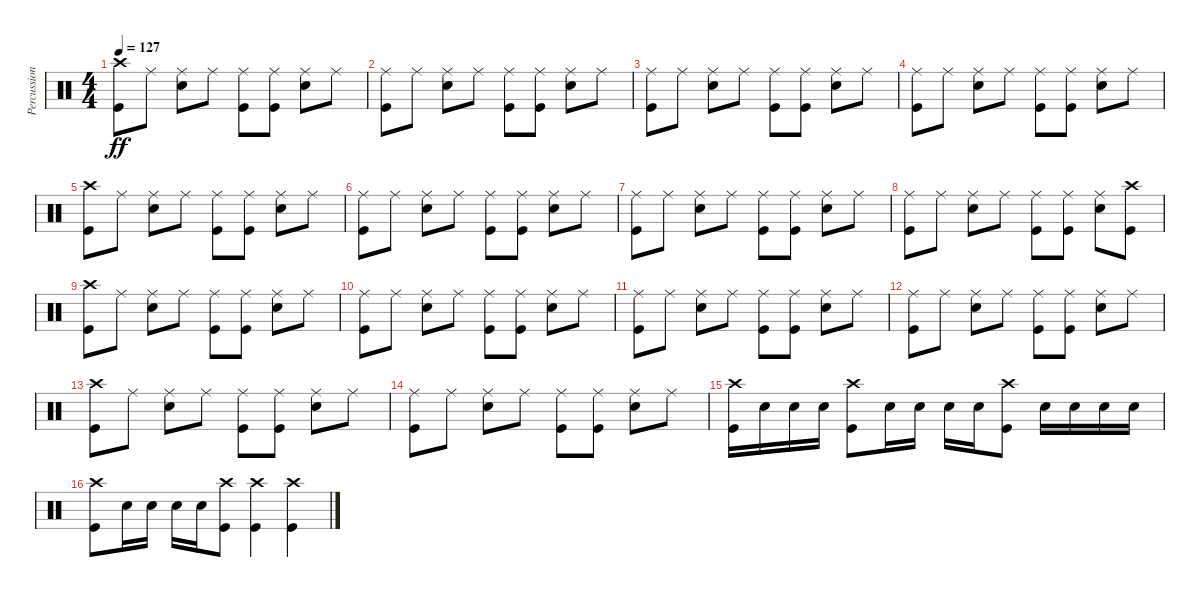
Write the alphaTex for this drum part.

\track ("Percussion" "Percussion") {instrument percussion}
\staff {score}
\articulation defaults
\ts (4 4)
\tempo 127
\clef neutral
\ks c
("Crash high (hit)" "Kick (hit)").8{dy ff} "Ride (middle)".8 ("Ride (middle)" "Snare (hit) 2").8 "Ride (middle)".8 ("Ride (middle)" "Kick (hit)").8 ("Ride (middle)" "Kick (hit)").8 ("Ride (middle)" "Snare (hit) 2").8 "Ride (middle)".8 |
("Ride (middle)" "Kick (hit)").8 "Ride (middle)".8 ("Ride (middle)" "Snare (hit) 2").8 "Ride (middle)".8 ("Ride (middle)" "Kick (hit)").8 ("Ride (middle)" "Kick (hit)").8 ("Ride (middle)" "Snare (hit) 2").8 "Ride (middle)".8 |
("Ride (middle)" "Kick (hit)").8 "Ride (middle)".8 ("Ride (middle)" "Snare (hit) 2").8 "Ride (middle)".8 ("Ride (middle)" "Kick (hit)").8 ("Ride (middle)" "Kick (hit)").8 ("Ride (middle)" "Snare (hit) 2").8 "Ride (middle)".8 |
("Ride (middle)" "Kick (hit)").8 "Ride (middle)".8 ("Ride (middle)" "Snare (hit) 2").8 "Ride (middle)".8 ("Ride (middle)" "Kick (hit)").8 ("Ride (middle)" "Kick (hit)").8 ("Ride (middle)" "Snare (hit) 2").8 "Ride (middle)".8 |
("Crash high (hit)" "Kick (hit)").8 "Ride (middle)".8 ("Ride (middle)" "Snare (hit) 2").8 "Ride (middle)".8 ("Ride (middle)" "Kick (hit)").8 ("Ride (middle)" "Kick (hit)").8 ("Ride (middle)" "Snare (hit) 2").8 "Ride (middle)".8 |
("Ride (middle)" "Kick (hit)").8 "Ride (middle)".8 ("Ride (middle)" "Snare (hit) 2").8 "Ride (middle)".8 ("Ride (middle)" "Kick (hit)").8 ("Ride (middle)" "Kick (hit)").8 ("Ride (middle)" "Snare (hit) 2").8 "Ride (middle)".8 |
("Ride (middle)" "Kick (hit)").8 "Ride (middle)".8 ("Ride (middle)" "Snare (hit) 2").8 "Ride (middle)".8 ("Ride (middle)" "Kick (hit)").8 ("Ride (middle)" "Kick (hit)").8 ("Ride (middle)" "Snare (hit) 2").8 "Ride (middle)".8 |
("Ride (middle)" "Kick (hit)").8 "Ride (middle)".8 ("Ride (middle)" "Snare (hit) 2").8 "Ride (middle)".8 ("Ride (middle)" "Kick (hit)").8 ("Ride (middle)" "Kick (hit)").8 ("Ride (middle)" "Snare (hit) 2").8 ("Crash high (hit)" "Kick (hit)").8 |
("Crash high (hit)" "Kick (hit)").8 "Ride (middle)".8 ("Ride (middle)" "Snare (hit) 2").8 "Ride (middle)".8 ("Ride (middle)" "Kick (hit)").8 ("Ride (middle)" "Kick (hit)").8 ("Ride (middle)" "Snare (hit) 2").8 "Ride (middle)".8 |
("Ride (middle)" "Kick (hit)").8 "Ride (middle)".8 ("Ride (middle)" "Snare (hit) 2").8 "Ride (middle)".8 ("Ride (middle)" "Kick (hit)").8 ("Ride (middle)" "Kick (hit)").8 ("Ride (middle)" "Snare (hit) 2").8 "Ride (middle)".8 |
("Ride (middle)" "Kick (hit)").8 "Ride (middle)".8 ("Ride (middle)" "Snare (hit) 2").8 "Ride (middle)".8 ("Ride (middle)" "Kick (hit)").8 ("Ride (middle)" "Kick (hit)").8 ("Ride (middle)" "Snare (hit) 2").8 "Ride (middle)".8 |
("Ride (middle)" "Kick (hit)").8 "Ride (middle)".8 ("Ride (middle)" "Snare (hit) 2").8 "Ride (middle)".8 ("Ride (middle)" "Kick (hit)").8 ("Ride (middle)" "Kick (hit)").8 ("Ride (middle)" "Snare (hit) 2").8 "Ride (middle)".8 |
("Crash high (hit)" "Kick (hit)").8 "Ride (middle)".8 ("Ride (middle)" "Snare (hit) 2").8 "Ride (middle)".8 ("Ride (middle)" "Kick (hit)").8 ("Ride (middle)" "Kick (hit)").8 ("Ride (middle)" "Snare (hit) 2").8 "Ride (middle)".8 |
("Ride (middle)" "Kick (hit)").8 "Ride (middle)".8 ("Ride (middle)" "Snare (hit) 2").8 "Ride (middle)".8 ("Ride (middle)" "Kick (hit)").8 ("Ride (middle)" "Kick (hit)").8 ("Ride (middle)" "Snare (hit) 2").8 "Ride (middle)".8 |
("Crash high (hit)" "Kick (hit)").16 "Snare (hit) 2".16 "Snare (hit) 2".16 "Snare (hit) 2".16 ("Crash high (hit)" "Kick (hit)").8 "Snare (hit) 2".16 "Snare (hit) 2".16 "Snare (hit) 2".16 "Snare (hit) 2".16 ("Crash high (hit)" "Kick (hit)").8 "Snare (hit) 2".16 "Snare (hit) 2".16 "Snare (hit) 2".16 "Snare (hit) 2".16 |
("Crash high (hit)" "Kick (hit)").8 "Snare (hit) 2".16 "Snare (hit) 2".16 "Snare (hit) 2".16 "Snare (hit) 2".16 ("Crash high (hit)" "Kick (hit)").8 ("Crash high (hit)" "Kick (hit)").4 ("Crash high (hit)" "Kick (hit)").4
